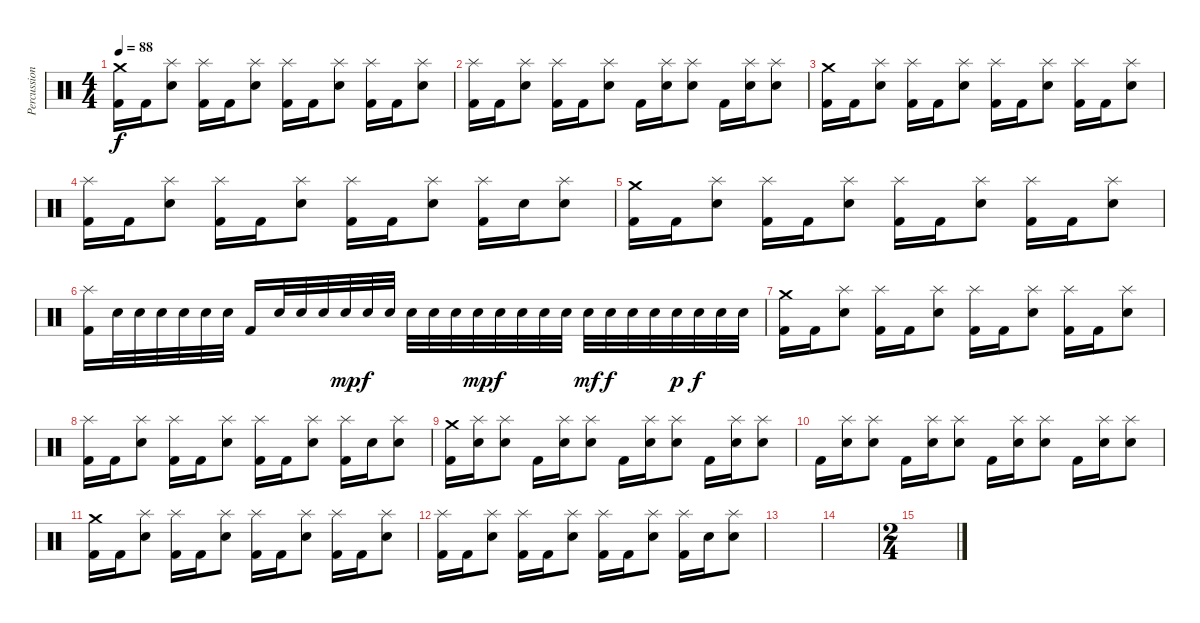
\track ("Percussion" "Percussion") {instrument percussion}
\staff {score}
\articulation defaults
\ts (4 4)
\tempo 88
\clef neutral
\ks c
("Crash medium (hit)" "Kick (hit) 2").16{dy f} "Kick (hit) 2".16 ("Splash (hit)" "Electric Snare (hit)").8 ("Splash (hit)" "Kick (hit) 2").16 "Kick (hit) 2".16 ("Splash (hit)" "Electric Snare (hit)").8 ("Splash (hit)" "Kick (hit) 2").16 "Kick (hit) 2".16 ("Splash (hit)" "Electric Snare (hit)").8 ("Splash (hit)" "Kick (hit) 2").16 "Kick (hit) 2".16 ("Splash (hit)" "Electric Snare (hit)").8 |
("Splash (hit)" "Kick (hit) 2").16 "Kick (hit) 2".16 ("Splash (hit)" "Electric Snare (hit)").8 ("Splash (hit)" "Kick (hit) 2").16 "Kick (hit) 2".16 ("Splash (hit)" "Electric Snare (hit)").8 "Kick (hit) 2".16 ("Splash (hit)" "Electric Snare (hit)").16 ("Splash (hit)" "Electric Snare (hit)").8 "Kick (hit) 2".16 ("Splash (hit)" "Electric Snare (hit)").16 ("Splash (hit)" "Electric Snare (hit)").8 |
("Crash medium (hit)" "Kick (hit) 2").16 "Kick (hit) 2".16 ("Splash (hit)" "Electric Snare (hit)").8 ("Splash (hit)" "Kick (hit) 2").16 "Kick (hit) 2".16 ("Splash (hit)" "Electric Snare (hit)").8 ("Splash (hit)" "Kick (hit) 2").16 "Kick (hit) 2".16 ("Splash (hit)" "Electric Snare (hit)").8 ("Splash (hit)" "Kick (hit) 2").16 "Kick (hit) 2".16 ("Splash (hit)" "Electric Snare (hit)").8 |
("Splash (hit)" "Kick (hit) 2").16 "Kick (hit) 2".16 ("Splash (hit)" "Electric Snare (hit)").8 ("Splash (hit)" "Kick (hit) 2").16 "Kick (hit) 2".16 ("Splash (hit)" "Electric Snare (hit)").8 ("Splash (hit)" "Kick (hit) 2").16 "Kick (hit) 2".16 ("Splash (hit)" "Electric Snare (hit)").8 ("Splash (hit)" "Kick (hit) 2").16 "Electric Snare (hit)".16 ("Splash (hit)" "Electric Snare (hit)").8 |
("Crash medium (hit)" "Kick (hit) 2").16 "Kick (hit) 2".16 ("Splash (hit)" "Electric Snare (hit)").8 ("Splash (hit)" "Kick (hit) 2").16 "Kick (hit) 2".16 ("Splash (hit)" "Electric Snare (hit)").8 ("Splash (hit)" "Kick (hit) 2").16 "Kick (hit) 2".16 ("Splash (hit)" "Electric Snare (hit)").8 ("Splash (hit)" "Kick (hit) 2").16 "Kick (hit) 2".16 ("Splash (hit)" "Electric Snare (hit)").8 |
("Splash (hit)" "Kick (hit) 2").16 "Electric Snare (hit)".32 "Electric Snare (hit)".32 "Electric Snare (hit)".32 "Electric Snare (hit)".32 "Electric Snare (hit)".32 "Electric Snare (hit)".32 "Kick (hit) 2".16 "Electric Snare (hit)".32 "Electric Snare (hit)".32 "Electric Snare (hit)".32 "Electric Snare (hit)".32{dy mp} "Electric Snare (hit)".32{dy f} "Electric Snare (hit)".32 "Electric Snare (hit)".32 "Electric Snare (hit)".32 "Electric Snare (hit)".32 "Electric Snare (hit)".32{dy mp} "Electric Snare (hit)".32{dy f} "Electric Snare (hit)".32 "Electric Snare (hit)".32 "Electric Snare (hit)".32 "Electric Snare (hit)".32{dy mf} "Electric Snare (hit)".32{dy f} "Electric Snare (hit)".32 "Electric Snare (hit)".32 "Electric Snare (hit)".32{dy p} "Electric Snare (hit)".32{dy f} "Electric Snare (hit)".32 "Electric Snare (hit)".32 |
("Crash medium (hit)" "Kick (hit) 2").16 "Kick (hit) 2".16 ("Splash (hit)" "Electric Snare (hit)").8 ("Splash (hit)" "Kick (hit) 2").16 "Kick (hit) 2".16 ("Splash (hit)" "Electric Snare (hit)").8 ("Splash (hit)" "Kick (hit) 2").16 "Kick (hit) 2".16 ("Splash (hit)" "Electric Snare (hit)").8 ("Splash (hit)" "Kick (hit) 2").16 "Kick (hit) 2".16 ("Splash (hit)" "Electric Snare (hit)").8 |
("Splash (hit)" "Kick (hit) 2").16 "Kick (hit) 2".16 ("Splash (hit)" "Electric Snare (hit)").8 ("Splash (hit)" "Kick (hit) 2").16 "Kick (hit) 2".16 ("Splash (hit)" "Electric Snare (hit)").8 ("Splash (hit)" "Kick (hit) 2").16 "Kick (hit) 2".16 ("Splash (hit)" "Electric Snare (hit)").8 ("Splash (hit)" "Kick (hit) 2").16 "Electric Snare (hit)".16 ("Splash (hit)" "Electric Snare (hit)").8 |
("Crash medium (hit)" "Kick (hit) 2").16 ("Splash (hit)" "Electric Snare (hit)").16 ("Splash (hit)" "Electric Snare (hit)").8 "Kick (hit) 2".16 ("Splash (hit)" "Electric Snare (hit)").16 ("Splash (hit)" "Electric Snare (hit)").8 "Kick (hit) 2".16 ("Splash (hit)" "Electric Snare (hit)").16 ("Splash (hit)" "Electric Snare (hit)").8 "Kick (hit) 2".16 ("Splash (hit)" "Electric Snare (hit)").16 ("Splash (hit)" "Electric Snare (hit)").8 |
"Kick (hit) 2".16 ("Splash (hit)" "Electric Snare (hit)").16 ("Splash (hit)" "Electric Snare (hit)").8 "Kick (hit) 2".16 ("Splash (hit)" "Electric Snare (hit)").16 ("Splash (hit)" "Electric Snare (hit)").8 "Kick (hit) 2".16 ("Splash (hit)" "Electric Snare (hit)").16 ("Splash (hit)" "Electric Snare (hit)").8 "Kick (hit) 2".16 ("Splash (hit)" "Electric Snare (hit)").16 ("Splash (hit)" "Electric Snare (hit)").8 |
("Crash medium (hit)" "Kick (hit) 2").16{volume 0} "Kick (hit) 2".16 ("Splash (hit)" "Electric Snare (hit)").8 ("Splash (hit)" "Kick (hit) 2").16 "Kick (hit) 2".16 ("Splash (hit)" "Electric Snare (hit)").8 ("Splash (hit)" "Kick (hit) 2").16 "Kick (hit) 2".16 ("Splash (hit)" "Electric Snare (hit)").8 ("Splash (hit)" "Kick (hit) 2").16 "Kick (hit) 2".16 ("Splash (hit)" "Electric Snare (hit)").8 |
("Splash (hit)" "Kick (hit) 2").16 "Kick (hit) 2".16 ("Splash (hit)" "Electric Snare (hit)").8 ("Splash (hit)" "Kick (hit) 2").16 "Kick (hit) 2".16 ("Splash (hit)" "Electric Snare (hit)").8 ("Splash (hit)" "Kick (hit) 2").16 "Kick (hit) 2".16 ("Splash (hit)" "Electric Snare (hit)").8 ("Splash (hit)" "Kick (hit) 2").16 "Electric Snare (hit)".16 ("Splash (hit)" "Electric Snare (hit)").8 |
|
|
\ts (2 4)
